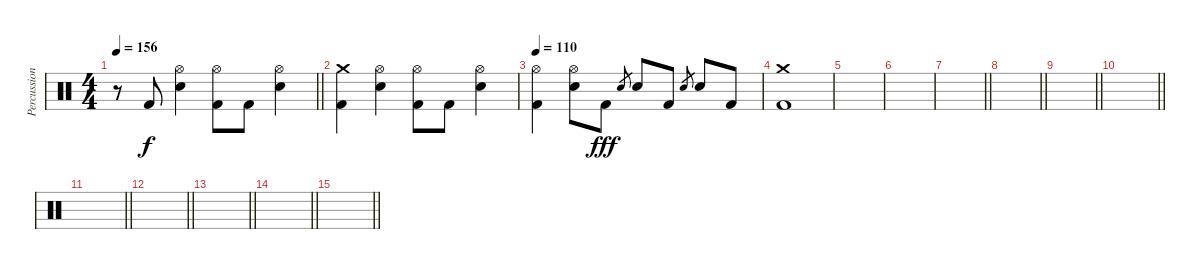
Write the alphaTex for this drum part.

\track ("Percussion" "Percussion") {instrument percussion}
\staff {score}
\articulation defaults
\ts (4 4)
\tempo 156
\clef neutral
\barLineRight lightlight
\ks c
r.8{dy f} "Kick (hit) 2".8 ("Hi-Hat (open)" "Snare (hit) 2").4 ("Hi-Hat (open)" "Kick (hit) 2").8 "Kick (hit) 2".8 ("Hi-Hat (open)" "Snare (hit) 2").4 |
("Crash medium (hit)" "Kick (hit) 2").4 ("Hi-Hat (open)" "Snare (hit) 2").4 ("Hi-Hat (open)" "Kick (hit) 2").8 "Kick (hit) 2".8 ("Hi-Hat (open)" "Snare (hit) 2").4 |
\tempo 110
("Hi-Hat (open)" "Kick (hit) 2").4 ("Hi-Hat (open)" "Snare (hit) 2").8 "Kick (hit) 2".8{dy fff} "Snare (hit) 2".8{gr} "Snare (hit) 2".8 "Kick (hit) 2".8 "Snare (hit) 2".8{gr} "Snare (hit) 2".8 "Kick (hit) 2".8 |
("Crash medium (hit)" "Kick (hit) 2").1 |
|
|
\barLineRight lightlight
|
\barLineRight lightlight
|
\barLineRight lightlight
|
\barLineRight lightlight
|
\barLineRight lightlight
|
\barLineRight lightlight
|
\barLineRight lightlight
|
\barLineRight lightlight
|
\barLineRight lightlight
